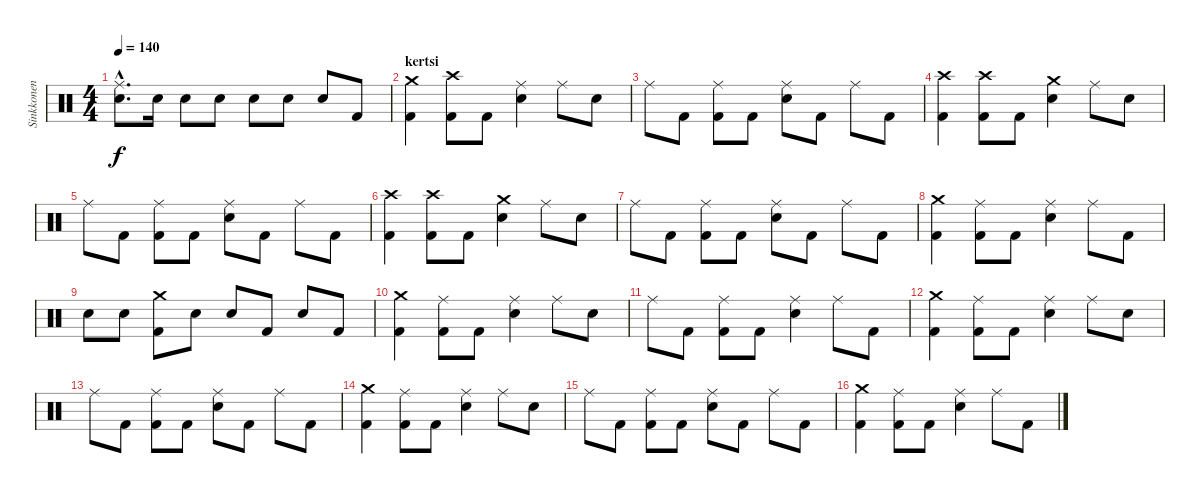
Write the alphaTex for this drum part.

\track ("Sinkkonen" "Sinkkonen") {instrument percussion}
\staff {score}
\articulation defaults
\ts (4 4)
\tempo 140
\clef neutral
\ks c
("Ride (middle)"{hac} "Snare (hit) 2"{hac}).8{d dy f} "Snare (hit) 2".16 "Snare (hit) 2".8 "Snare (hit) 2".8 "Snare (hit) 2".8 "Snare (hit) 2".8 "Snare (hit) 2".8 "Kick (hit) 2".8 |
\section ("" "kertsi")
("Kick (hit) 2" "Crash medium (hit)").4 ("Kick (hit) 2" "Crash high (hit)").8 "Kick (hit) 2".8 ("Ride (middle)" "Snare (hit) 2").4 "Ride (middle)".8 "Snare (hit) 2".8 |
"Ride (middle)".8 "Kick (hit) 2".8 ("Kick (hit) 2" "Ride (middle)").8 "Kick (hit) 2".8 ("Ride (middle)" "Snare (hit) 2").8 "Kick (hit) 2".8 "Ride (middle)".8 "Kick (hit) 2".8 |
("Kick (hit) 2" "Crash high (hit)").4 ("Kick (hit) 2" "Crash high (hit)").8 "Kick (hit) 2".8 ("Crash medium (hit)" "Snare (hit) 2").4 "Ride (middle)".8 "Snare (hit) 2".8 |
"Ride (middle)".8 "Kick (hit) 2".8 ("Kick (hit) 2" "Ride (middle)").8 "Kick (hit) 2".8 ("Ride (middle)" "Snare (hit) 2").8 "Kick (hit) 2".8 "Ride (middle)".8 "Kick (hit) 2".8 |
("Kick (hit) 2" "Crash high (hit)").4 ("Kick (hit) 2" "Crash high (hit)").8 "Kick (hit) 2".8 ("Crash medium (hit)" "Snare (hit) 2").4 "Ride (middle)".8 "Snare (hit) 2".8 |
"Ride (middle)".8 "Kick (hit) 2".8 ("Kick (hit) 2" "Ride (middle)").8 "Kick (hit) 2".8 ("Ride (middle)" "Snare (hit) 2").8 "Kick (hit) 2".8 "Ride (middle)".8 "Kick (hit) 2".8 |
("Kick (hit) 2" "Crash medium (hit)").4 ("Kick (hit) 2" "Ride (middle)").8 "Kick (hit) 2".8 ("Ride (middle)" "Snare (hit) 2").4 "Ride (middle)".8 "Kick (hit) 2".8 |
"Snare (hit) 2".8 "Snare (hit) 2".8 ("Kick (hit) 2" "Crash medium (hit)").8 "Snare (hit) 2".8 "Snare (hit) 2".8 "Kick (hit) 2".8 "Snare (hit) 2".8 "Kick (hit) 2".8 |
("Kick (hit) 2" "Crash medium (hit)").4 ("Kick (hit) 2" "Ride (middle)").8 "Kick (hit) 2".8 ("Ride (middle)" "Snare (hit) 2").4 "Ride (middle)".8 "Snare (hit) 2".8 |
"Ride (middle)".8 "Kick (hit) 2".8 ("Kick (hit) 2" "Ride (middle)").8 "Kick (hit) 2".8 ("Ride (middle)" "Snare (hit) 2").4 "Ride (middle)".8 "Kick (hit) 2".8 |
("Kick (hit) 2" "Crash medium (hit)").4 ("Kick (hit) 2" "Ride (middle)").8 "Kick (hit) 2".8 ("Ride (middle)" "Snare (hit) 2").4 "Ride (middle)".8 "Snare (hit) 2".8 |
"Ride (middle)".8 "Kick (hit) 2".8 ("Kick (hit) 2" "Ride (middle)").8 "Kick (hit) 2".8 ("Ride (middle)" "Snare (hit) 2").8 "Kick (hit) 2".8 "Ride (middle)".8 "Kick (hit) 2".8 |
("Kick (hit) 2" "Crash medium (hit)").4 ("Kick (hit) 2" "Ride (middle)").8 "Kick (hit) 2".8 ("Ride (middle)" "Snare (hit) 2").4 "Ride (middle)".8 "Snare (hit) 2".8 |
"Ride (middle)".8 "Kick (hit) 2".8 ("Kick (hit) 2" "Ride (middle)").8 "Kick (hit) 2".8 ("Ride (middle)" "Snare (hit) 2").8 "Kick (hit) 2".8 "Ride (middle)".8 "Kick (hit) 2".8 |
("Kick (hit) 2" "Crash medium (hit)").4 ("Kick (hit) 2" "Ride (middle)").8 "Kick (hit) 2".8 ("Ride (middle)" "Snare (hit) 2").4 "Ride (middle)".8 "Kick (hit) 2".8
